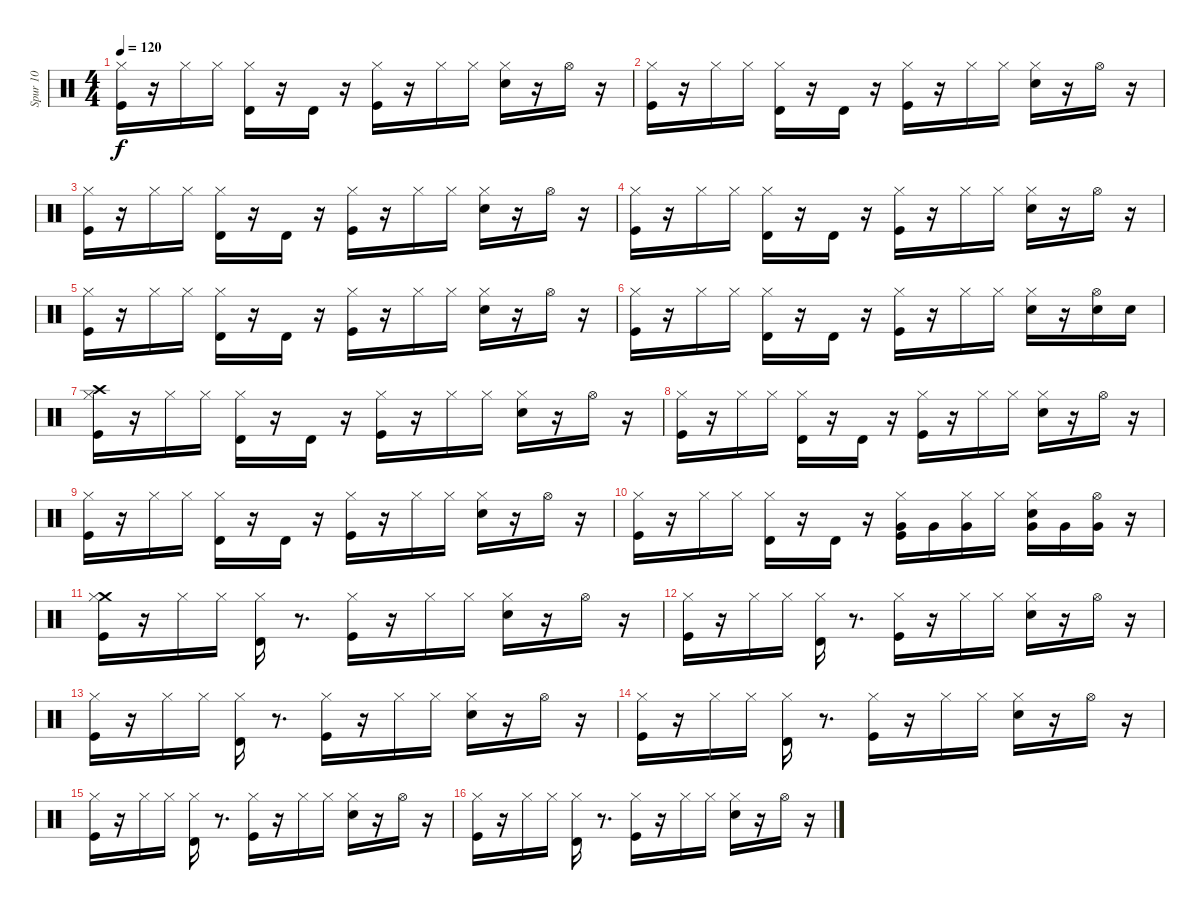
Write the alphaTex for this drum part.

\track ("Spur 10" "Spur 10") {instrument percussion}
\staff {score}
\articulation defaults
\ts (4 4)
\tempo 120
\clef neutral
\ks c
("Hi-Hat (closed)" "Kick (hit)").16{dy f} r.16 "Hi-Hat (closed)".16 "Hi-Hat (closed)".16 ("Hi-Hat (closed)" "Timbale high (hit)").16 r.16 "Timbale high (hit)".16 r.16 ("Hi-Hat (closed)" "Kick (hit)").16 r.16 "Hi-Hat (closed)".16 "Hi-Hat (closed)".16 ("Hi-Hat (closed)" "Snare (hit) 2").16 r.16 "Hi-Hat (open)".16 r.16 |
("Hi-Hat (closed)" "Kick (hit)").16 r.16 "Hi-Hat (closed)".16 "Hi-Hat (closed)".16 ("Hi-Hat (closed)" "Timbale high (hit)").16 r.16 "Timbale high (hit)".16 r.16 ("Hi-Hat (closed)" "Kick (hit)").16 r.16 "Hi-Hat (closed)".16 "Hi-Hat (closed)".16 ("Hi-Hat (closed)" "Snare (hit) 2").16 r.16 "Hi-Hat (open)".16 r.16 |
("Hi-Hat (closed)" "Kick (hit)").16 r.16 "Hi-Hat (closed)".16 "Hi-Hat (closed)".16 ("Hi-Hat (closed)" "Timbale high (hit)").16 r.16 "Timbale high (hit)".16 r.16 ("Hi-Hat (closed)" "Kick (hit)").16 r.16 "Hi-Hat (closed)".16 "Hi-Hat (closed)".16 ("Hi-Hat (closed)" "Snare (hit) 2").16 r.16 "Hi-Hat (open)".16 r.16 |
("Hi-Hat (closed)" "Kick (hit)").16 r.16 "Hi-Hat (closed)".16 "Hi-Hat (closed)".16 ("Hi-Hat (closed)" "Timbale high (hit)").16 r.16 "Timbale high (hit)".16 r.16 ("Hi-Hat (closed)" "Kick (hit)").16 r.16 "Hi-Hat (closed)".16 "Hi-Hat (closed)".16 ("Hi-Hat (closed)" "Snare (hit) 2").16 r.16 "Hi-Hat (open)".16 r.16 |
("Hi-Hat (closed)" "Kick (hit)").16 r.16 "Hi-Hat (closed)".16 "Hi-Hat (closed)".16 ("Hi-Hat (closed)" "Timbale high (hit)").16 r.16 "Timbale high (hit)".16 r.16 ("Hi-Hat (closed)" "Kick (hit)").16 r.16 "Hi-Hat (closed)".16 "Hi-Hat (closed)".16 ("Hi-Hat (closed)" "Snare (hit) 2").16 r.16 "Hi-Hat (open)".16 r.16 |
("Hi-Hat (closed)" "Kick (hit)").16 r.16 "Hi-Hat (closed)".16 "Hi-Hat (closed)".16 ("Hi-Hat (closed)" "Timbale high (hit)").16 r.16 "Timbale high (hit)".16 r.16 ("Hi-Hat (closed)" "Kick (hit)").16 r.16 "Hi-Hat (closed)".16 "Hi-Hat (closed)".16 ("Hi-Hat (closed)" "Snare (hit) 2").16 r.16 ("Snare (hit) 2" "Hi-Hat (open)").16 "Snare (hit) 2".16 |
("Crash high (hit)" "Hi-Hat (closed)" "Kick (hit)").16 r.16 "Hi-Hat (closed)".16 "Hi-Hat (closed)".16 ("Hi-Hat (closed)" "Timbale high (hit)").16 r.16 "Timbale high (hit)".16 r.16 ("Hi-Hat (closed)" "Kick (hit)").16 r.16 "Hi-Hat (closed)".16 "Hi-Hat (closed)".16 ("Hi-Hat (closed)" "Snare (hit) 2").16 r.16 "Hi-Hat (open)".16 r.16 |
("Hi-Hat (closed)" "Kick (hit)").16 r.16 "Hi-Hat (closed)".16 "Hi-Hat (closed)".16 ("Hi-Hat (closed)" "Timbale high (hit)").16 r.16 "Timbale high (hit)".16 r.16 ("Hi-Hat (closed)" "Kick (hit)").16 r.16 "Hi-Hat (closed)".16 "Hi-Hat (closed)".16 ("Hi-Hat (closed)" "Snare (hit) 2").16 r.16 "Hi-Hat (open)".16 r.16 |
("Hi-Hat (closed)" "Kick (hit)").16 r.16 "Hi-Hat (closed)".16 "Hi-Hat (closed)".16 ("Hi-Hat (closed)" "Timbale high (hit)").16 r.16 "Timbale high (hit)".16 r.16 ("Hi-Hat (closed)" "Kick (hit)").16 r.16 "Hi-Hat (closed)".16 "Hi-Hat (closed)".16 ("Hi-Hat (closed)" "Snare (hit) 2").16 r.16 "Hi-Hat (open)".16 r.16 |
("Hi-Hat (closed)" "Kick (hit)").16 r.16 "Hi-Hat (closed)".16 "Hi-Hat (closed)".16 ("Hi-Hat (closed)" "Timbale high (hit)").16 r.16 "Timbale high (hit)".16 r.16 ("Very Low Tom (hit)" "Hi-Hat (closed)" "Kick (hit)").16 "Very Low Tom (hit)".16 ("Very Low Tom (hit)" "Hi-Hat (closed)").16 "Hi-Hat (closed)".16 ("Very Low Tom (hit)" "Hi-Hat (closed)" "Snare (hit) 2").16 "Very Low Tom (hit)".16 ("Very Low Tom (hit)" "Hi-Hat (open)").16 r.16 |
("Crash medium (hit)" "Hi-Hat (closed)" "Kick (hit)").16 r.16 "Hi-Hat (closed)".16 "Hi-Hat (closed)".16 ("Hi-Hat (closed)" "Timbale high (hit)").16 r.8{d} ("Hi-Hat (closed)" "Kick (hit)").16 r.16 "Hi-Hat (closed)".16 "Hi-Hat (closed)".16 ("Hi-Hat (closed)" "Snare (hit) 2").16 r.16 "Hi-Hat (open)".16 r.16 |
("Hi-Hat (closed)" "Kick (hit)").16 r.16 "Hi-Hat (closed)".16 "Hi-Hat (closed)".16 ("Hi-Hat (closed)" "Timbale high (hit)").16 r.8{d} ("Hi-Hat (closed)" "Kick (hit)").16 r.16 "Hi-Hat (closed)".16 "Hi-Hat (closed)".16 ("Hi-Hat (closed)" "Snare (hit) 2").16 r.16 "Hi-Hat (open)".16 r.16 |
("Hi-Hat (closed)" "Kick (hit)").16 r.16 "Hi-Hat (closed)".16 "Hi-Hat (closed)".16 ("Hi-Hat (closed)" "Timbale high (hit)").16 r.8{d} ("Hi-Hat (closed)" "Kick (hit)").16 r.16 "Hi-Hat (closed)".16 "Hi-Hat (closed)".16 ("Hi-Hat (closed)" "Snare (hit) 2").16 r.16 "Hi-Hat (open)".16 r.16 |
("Hi-Hat (closed)" "Kick (hit)").16 r.16 "Hi-Hat (closed)".16 "Hi-Hat (closed)".16 ("Hi-Hat (closed)" "Timbale high (hit)").16 r.8{d} ("Hi-Hat (closed)" "Kick (hit)").16 r.16 "Hi-Hat (closed)".16 "Hi-Hat (closed)".16 ("Hi-Hat (closed)" "Snare (hit) 2").16 r.16 "Hi-Hat (open)".16 r.16 |
("Hi-Hat (closed)" "Kick (hit)").16 r.16 "Hi-Hat (closed)".16 "Hi-Hat (closed)".16 ("Hi-Hat (closed)" "Timbale high (hit)").16 r.8{d} ("Hi-Hat (closed)" "Kick (hit)").16 r.16 "Hi-Hat (closed)".16 "Hi-Hat (closed)".16 ("Hi-Hat (closed)" "Snare (hit) 2").16 r.16 "Hi-Hat (open)".16 r.16 |
("Hi-Hat (closed)" "Kick (hit)").16 r.16 "Hi-Hat (closed)".16 "Hi-Hat (closed)".16 ("Hi-Hat (closed)" "Timbale high (hit)").16 r.8{d} ("Hi-Hat (closed)" "Kick (hit)").16 r.16 "Hi-Hat (closed)".16 "Hi-Hat (closed)".16 ("Hi-Hat (closed)" "Snare (hit) 2").16 r.16 "Hi-Hat (open)".16 r.16
